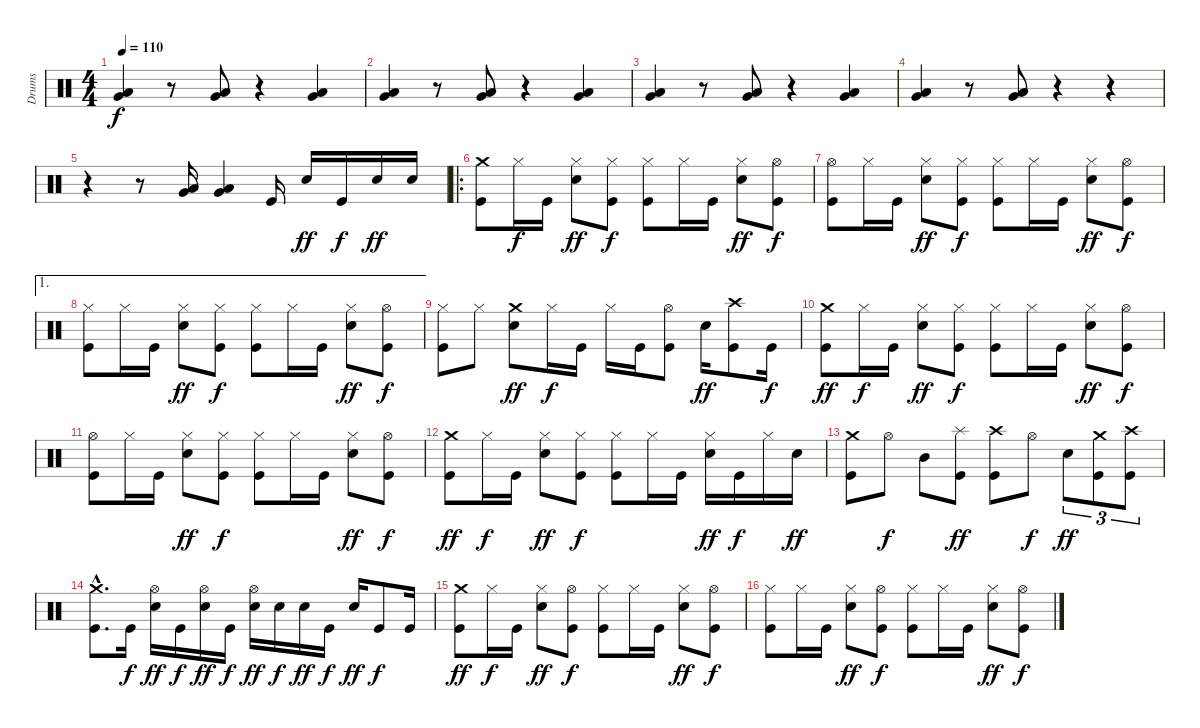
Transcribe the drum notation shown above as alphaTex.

\track ("Drums" "Drums") {instrument percussion}
\staff {score}
\articulation defaults
\ts (4 4)
\tempo 110
\clef neutral
\ks c
("Low Tom (hit)" "Very Low Tom (hit)").4{dy f} r.8 ("Low Tom (hit)" "Very Low Tom (hit)").8 r.4 ("Low Tom (hit)" "Very Low Tom (hit)").4 |
("Low Tom (hit)" "Very Low Tom (hit)").4 r.8 ("Low Tom (hit)" "Very Low Tom (hit)").8 r.4 ("Low Tom (hit)" "Very Low Tom (hit)").4 |
("Low Tom (hit)" "Very Low Tom (hit)").4 r.8 ("Low Tom (hit)" "Very Low Tom (hit)").8 r.4 ("Low Tom (hit)" "Very Low Tom (hit)").4 |
("Low Tom (hit)" "Very Low Tom (hit)").4 r.8 ("Low Tom (hit)" "Very Low Tom (hit)").8 r.4 r.4 |
r.4 r.8 ("Low Tom (hit)" "Very Low Tom (hit)").16 ("Low Tom (hit)" "Very Low Tom (hit)").4 "Kick (hit)".16 "Electric Snare (hit)".16{dy ff} "Kick (hit)".16{dy f} "Electric Snare (hit)".16{dy ff} "Electric Snare (hit)".16 |
\ro
("Kick (hit)" "Crash medium (hit)").8 "Hi-Hat (closed)".16{dy f} "Kick (hit)".16 ("Electric Snare (hit)" "Hi-Hat (closed)").8{dy ff} ("Kick (hit)" "Hi-Hat (closed)").8{dy f} ("Kick (hit)" "Hi-Hat (closed)").8 "Hi-Hat (closed)".16 "Kick (hit)".16 ("Electric Snare (hit)" "Hi-Hat (closed)").8{dy ff} ("Kick (hit)" "Hi-Hat (open)").8{dy f} |
("Kick (hit)" "Hi-Hat (open)").8 "Hi-Hat (closed)".16 "Kick (hit)".16 ("Electric Snare (hit)" "Hi-Hat (closed)").8{dy ff} ("Kick (hit)" "Hi-Hat (closed)").8{dy f} ("Kick (hit)" "Hi-Hat (closed)").8 "Hi-Hat (closed)".16 "Kick (hit)".16 ("Electric Snare (hit)" "Hi-Hat (closed)").8{dy ff} ("Kick (hit)" "Hi-Hat (open)").8{dy f} |
\ae 1
("Kick (hit)" "Hi-Hat (closed)").8 "Hi-Hat (closed)".16 "Kick (hit)".16 ("Electric Snare (hit)" "Hi-Hat (closed)").8{dy ff} ("Kick (hit)" "Hi-Hat (closed)").8{dy f} ("Kick (hit)" "Hi-Hat (closed)").8 "Hi-Hat (closed)".16 "Kick (hit)".16 ("Electric Snare (hit)" "Hi-Hat (closed)").8{dy ff} ("Kick (hit)" "Hi-Hat (open)").8{dy f} |
("Kick (hit)" "Hi-Hat (closed)").8 "Hi-Hat (closed)".8 ("Electric Snare (hit)" "Crash medium (hit)").8{dy ff} "Hi-Hat (closed)".16{dy f} "Kick (hit)".16 "Hi-Hat (closed)".16 "Kick (hit)".16 ("Kick (hit)" "Hi-Hat (open)").8 "Electric Snare (hit)".16{dy ff} ("Kick (hit)" "Crash high (hit)").8 "Kick (hit)".16{dy f} |
("Kick (hit)" "Crash medium (hit)").8{dy ff} "Hi-Hat (closed)".16{dy f} "Kick (hit)".16 ("Electric Snare (hit)" "Hi-Hat (closed)").8{dy ff} ("Kick (hit)" "Hi-Hat (closed)").8{dy f} ("Kick (hit)" "Hi-Hat (closed)").8 "Hi-Hat (closed)".16 "Kick (hit)".16 ("Electric Snare (hit)" "Hi-Hat (closed)").8{dy ff} ("Kick (hit)" "Hi-Hat (open)").8{dy f} |
("Kick (hit)" "Hi-Hat (open)").8 "Hi-Hat (closed)".16 "Kick (hit)".16 ("Electric Snare (hit)" "Hi-Hat (closed)").8{dy ff} ("Kick (hit)" "Hi-Hat (closed)").8{dy f} ("Kick (hit)" "Hi-Hat (closed)").8 "Hi-Hat (closed)".16 "Kick (hit)".16 ("Electric Snare (hit)" "Hi-Hat (closed)").8{dy ff} ("Kick (hit)" "Hi-Hat (open)").8{dy f} |
("Kick (hit)" "Crash medium (hit)").8{dy ff} "Hi-Hat (closed)".16{dy f} "Kick (hit)".16 ("Electric Snare (hit)" "Hi-Hat (closed)").8{dy ff} ("Kick (hit)" "Hi-Hat (closed)").8{dy f} ("Kick (hit)" "Hi-Hat (closed)").8 "Hi-Hat (closed)".16 "Kick (hit)".16 ("Electric Snare (hit)" "Hi-Hat (closed)").16{dy ff} "Kick (hit)".16{dy f} "Hi-Hat (closed)".16 "Electric Snare (hit)".16{dy ff} |
("Kick (hit)" "Crash medium (hit)").8 "Hi-Hat (open)".8{dy f} "Mid Tom (hit)".8 ("Kick (hit)" "Splash (hit)").8{dy ff} ("Kick (hit)" "Crash high (hit)").8 "Hi-Hat (open)".8{dy f} "Electric Snare (hit)".8{tu (3 2) dy ff} ("Kick (hit)" "Crash medium (hit)").8{tu (3 2)} ("Kick (hit)" "Crash high (hit)").8{tu (3 2)} |
("Kick (hit)"{hac} "Crash medium (hit)"{hac}).8{d} "Kick (hit)".16{dy f} ("Electric Snare (hit)" "Hi-Hat (open)").16{dy ff} "Kick (hit)".16{dy f} ("Electric Snare (hit)" "Hi-Hat (open)").16{dy ff} "Kick (hit)".16{dy f} ("Electric Snare (hit)" "Hi-Hat (open)").16{dy ff} "Electric Snare (hit)".16{dy f} "Electric Snare (hit)".16{dy ff} "Kick (hit)".16{dy f} "Electric Snare (hit)".16{dy ff} "Kick (hit)".8{dy f} "Kick (hit)".16 |
("Kick (hit)" "Crash medium (hit)").8{dy ff} "Hi-Hat (closed)".16{dy f} "Kick (hit)".16 ("Electric Snare (hit)" "Hi-Hat (closed)").8{dy ff} ("Kick (hit)" "Hi-Hat (open)").8{dy f} ("Kick (hit)" "Hi-Hat (closed)").8 "Hi-Hat (closed)".16 "Kick (hit)".16 ("Electric Snare (hit)" "Hi-Hat (closed)").8{dy ff} ("Kick (hit)" "Hi-Hat (open)").8{dy f} |
("Kick (hit)" "Hi-Hat (closed)").8 "Hi-Hat (closed)".16 "Kick (hit)".16 ("Electric Snare (hit)" "Hi-Hat (closed)").8{dy ff} ("Kick (hit)" "Hi-Hat (open)").8{dy f} ("Kick (hit)" "Hi-Hat (closed)").8 "Hi-Hat (closed)".16 "Kick (hit)".16 ("Electric Snare (hit)" "Hi-Hat (closed)").8{dy ff} ("Kick (hit)" "Hi-Hat (open)").8{dy f}
